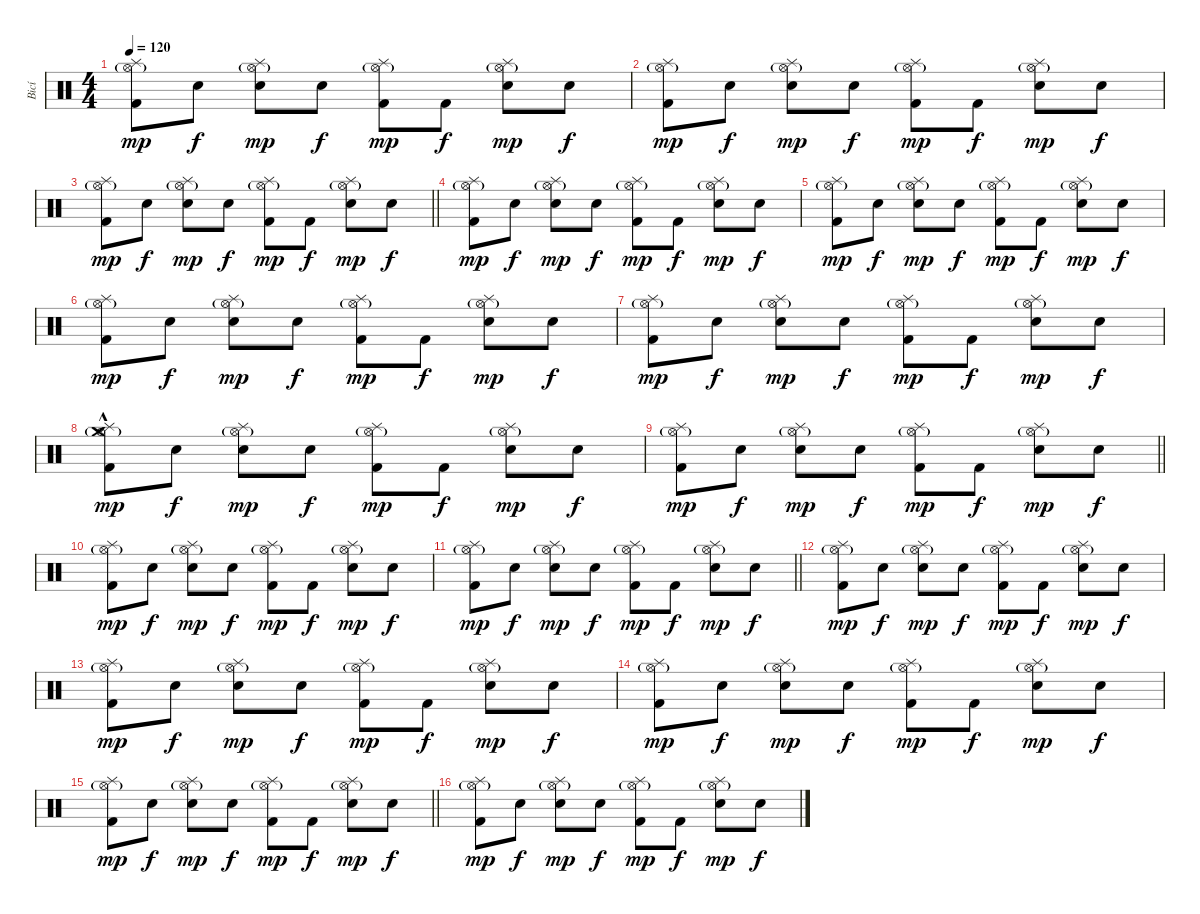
\track ("Bicí" "Bicí") {instrument percussion}
\staff {score}
\articulation defaults
\ts (4 4)
\tempo 120
\clef neutral
\ks c
("Splash (hit)" "Hi-Hat (open)"{g} "Kick (hit) 2").8{dy mp} "Snare (hit)".8{dy f} ("Splash (hit)" "Hi-Hat (open)"{g} "Electric Snare (hit)").8{dy mp} "Snare (hit)".8{dy f} ("Splash (hit)" "Hi-Hat (open)"{g} "Kick (hit) 2").8{dy mp} "Kick (hit) 2".8{dy f} ("Splash (hit)" "Hi-Hat (open)"{g} "Electric Snare (hit)").8{dy mp} "Snare (hit)".8{dy f} |
("Splash (hit)" "Hi-Hat (open)"{g} "Kick (hit) 2").8{dy mp} "Snare (hit)".8{dy f} ("Splash (hit)" "Hi-Hat (open)"{g} "Electric Snare (hit)").8{dy mp} "Snare (hit)".8{dy f} ("Splash (hit)" "Hi-Hat (open)"{g} "Kick (hit) 2").8{dy mp} "Kick (hit) 2".8{dy f} ("Splash (hit)" "Hi-Hat (open)"{g} "Electric Snare (hit)").8{dy mp} "Snare (hit)".8{dy f} |
\barLineRight lightlight
("Splash (hit)" "Hi-Hat (open)"{g} "Kick (hit) 2").8{dy mp} "Snare (hit)".8{dy f} ("Splash (hit)" "Hi-Hat (open)"{g} "Electric Snare (hit)").8{dy mp} "Snare (hit)".8{dy f} ("Splash (hit)" "Hi-Hat (open)"{g} "Kick (hit) 2").8{dy mp} "Kick (hit) 2".8{dy f} ("Splash (hit)" "Hi-Hat (open)"{g} "Electric Snare (hit)").8{dy mp} "Snare (hit)".8{dy f} |
("Splash (hit)" "Hi-Hat (open)"{g} "Kick (hit) 2").8{dy mp} "Snare (hit)".8{dy f} ("Splash (hit)" "Hi-Hat (open)"{g} "Electric Snare (hit)").8{dy mp} "Snare (hit)".8{dy f} ("Splash (hit)" "Hi-Hat (open)"{g} "Kick (hit) 2").8{dy mp} "Kick (hit) 2".8{dy f} ("Splash (hit)" "Hi-Hat (open)"{g} "Electric Snare (hit)").8{dy mp} "Snare (hit)".8{dy f} |
("Splash (hit)" "Hi-Hat (open)"{g} "Kick (hit) 2").8{dy mp} "Snare (hit)".8{dy f} ("Splash (hit)" "Hi-Hat (open)"{g} "Electric Snare (hit)").8{dy mp} "Snare (hit)".8{dy f} ("Splash (hit)" "Hi-Hat (open)"{g} "Kick (hit) 2").8{dy mp} "Kick (hit) 2".8{dy f} ("Splash (hit)" "Hi-Hat (open)"{g} "Electric Snare (hit)").8{dy mp} "Snare (hit)".8{dy f} |
("Splash (hit)" "Hi-Hat (open)"{g} "Kick (hit) 2").8{dy mp} "Snare (hit)".8{dy f} ("Splash (hit)" "Hi-Hat (open)"{g} "Electric Snare (hit)").8{dy mp} "Snare (hit)".8{dy f} ("Splash (hit)" "Hi-Hat (open)"{g} "Kick (hit) 2").8{dy mp} "Kick (hit) 2".8{dy f} ("Splash (hit)" "Hi-Hat (open)"{g} "Electric Snare (hit)").8{dy mp} "Snare (hit)".8{dy f} |
("Splash (hit)" "Hi-Hat (open)"{g} "Kick (hit) 2").8{dy mp} "Snare (hit)".8{dy f} ("Splash (hit)" "Hi-Hat (open)"{g} "Electric Snare (hit)").8{dy mp} "Snare (hit)".8{dy f} ("Splash (hit)" "Hi-Hat (open)"{g} "Kick (hit) 2").8{dy mp} "Kick (hit) 2".8{dy f} ("Splash (hit)" "Hi-Hat (open)"{g} "Electric Snare (hit)").8{dy mp} "Snare (hit)".8{dy f} |
("Crash medium (hit)"{hac} "Splash (hit)" "Hi-Hat (open)"{g} "Kick (hit) 2").8{dy mp} "Snare (hit)".8{dy f} ("Splash (hit)" "Hi-Hat (open)"{g} "Electric Snare (hit)").8{dy mp} "Snare (hit)".8{dy f} ("Splash (hit)" "Hi-Hat (open)"{g} "Kick (hit) 2").8{dy mp} "Kick (hit) 2".8{dy f} ("Splash (hit)" "Hi-Hat (open)"{g} "Electric Snare (hit)").8{dy mp} "Snare (hit)".8{dy f} |
\barLineRight lightlight
("Splash (hit)" "Hi-Hat (open)"{g} "Kick (hit) 2").8{dy mp} "Snare (hit)".8{dy f} ("Splash (hit)" "Hi-Hat (open)"{g} "Electric Snare (hit)").8{dy mp} "Snare (hit)".8{dy f} ("Splash (hit)" "Hi-Hat (open)"{g} "Kick (hit) 2").8{dy mp} "Kick (hit) 2".8{dy f} ("Splash (hit)" "Hi-Hat (open)"{g} "Electric Snare (hit)").8{dy mp} "Snare (hit)".8{dy f} |
("Splash (hit)" "Hi-Hat (open)"{g} "Kick (hit) 2").8{dy mp} "Snare (hit)".8{dy f} ("Splash (hit)" "Hi-Hat (open)"{g} "Electric Snare (hit)").8{dy mp} "Snare (hit)".8{dy f} ("Splash (hit)" "Hi-Hat (open)"{g} "Kick (hit) 2").8{dy mp} "Kick (hit) 2".8{dy f} ("Splash (hit)" "Hi-Hat (open)"{g} "Electric Snare (hit)").8{dy mp} "Snare (hit)".8{dy f} |
\barLineRight lightlight
("Splash (hit)" "Hi-Hat (open)"{g} "Kick (hit) 2").8{dy mp} "Snare (hit)".8{dy f} ("Splash (hit)" "Hi-Hat (open)"{g} "Electric Snare (hit)").8{dy mp} "Snare (hit)".8{dy f} ("Splash (hit)" "Hi-Hat (open)"{g} "Kick (hit) 2").8{dy mp} "Kick (hit) 2".8{dy f} ("Splash (hit)" "Hi-Hat (open)"{g} "Electric Snare (hit)").8{dy mp} "Snare (hit)".8{dy f} |
("Splash (hit)" "Hi-Hat (open)"{g} "Kick (hit) 2").8{dy mp} "Snare (hit)".8{dy f} ("Splash (hit)" "Hi-Hat (open)"{g} "Electric Snare (hit)").8{dy mp} "Snare (hit)".8{dy f} ("Splash (hit)" "Hi-Hat (open)"{g} "Kick (hit) 2").8{dy mp} "Kick (hit) 2".8{dy f} ("Splash (hit)" "Hi-Hat (open)"{g} "Electric Snare (hit)").8{dy mp} "Snare (hit)".8{dy f} |
("Splash (hit)" "Hi-Hat (open)"{g} "Kick (hit) 2").8{dy mp} "Snare (hit)".8{dy f} ("Splash (hit)" "Hi-Hat (open)"{g} "Electric Snare (hit)").8{dy mp} "Snare (hit)".8{dy f} ("Splash (hit)" "Hi-Hat (open)"{g} "Kick (hit) 2").8{dy mp} "Kick (hit) 2".8{dy f} ("Splash (hit)" "Hi-Hat (open)"{g} "Electric Snare (hit)").8{dy mp} "Snare (hit)".8{dy f} |
("Splash (hit)" "Hi-Hat (open)"{g} "Kick (hit) 2").8{dy mp} "Snare (hit)".8{dy f} ("Splash (hit)" "Hi-Hat (open)"{g} "Electric Snare (hit)").8{dy mp} "Snare (hit)".8{dy f} ("Splash (hit)" "Hi-Hat (open)"{g} "Kick (hit) 2").8{dy mp} "Kick (hit) 2".8{dy f} ("Splash (hit)" "Hi-Hat (open)"{g} "Electric Snare (hit)").8{dy mp} "Snare (hit)".8{dy f} |
\barLineRight lightlight
("Splash (hit)" "Hi-Hat (open)"{g} "Kick (hit) 2").8{dy mp} "Snare (hit)".8{dy f} ("Splash (hit)" "Hi-Hat (open)"{g} "Electric Snare (hit)").8{dy mp} "Snare (hit)".8{dy f} ("Splash (hit)" "Hi-Hat (open)"{g} "Kick (hit) 2").8{dy mp} "Kick (hit) 2".8{dy f} ("Splash (hit)" "Hi-Hat (open)"{g} "Electric Snare (hit)").8{dy mp} "Snare (hit)".8{dy f} |
("Splash (hit)" "Hi-Hat (open)"{g} "Kick (hit) 2").8{dy mp} "Snare (hit)".8{dy f} ("Splash (hit)" "Hi-Hat (open)"{g} "Electric Snare (hit)").8{dy mp} "Snare (hit)".8{dy f} ("Splash (hit)" "Hi-Hat (open)"{g} "Kick (hit) 2").8{dy mp} "Kick (hit) 2".8{dy f} ("Splash (hit)" "Hi-Hat (open)"{g} "Electric Snare (hit)").8{dy mp} "Snare (hit)".8{dy f}
